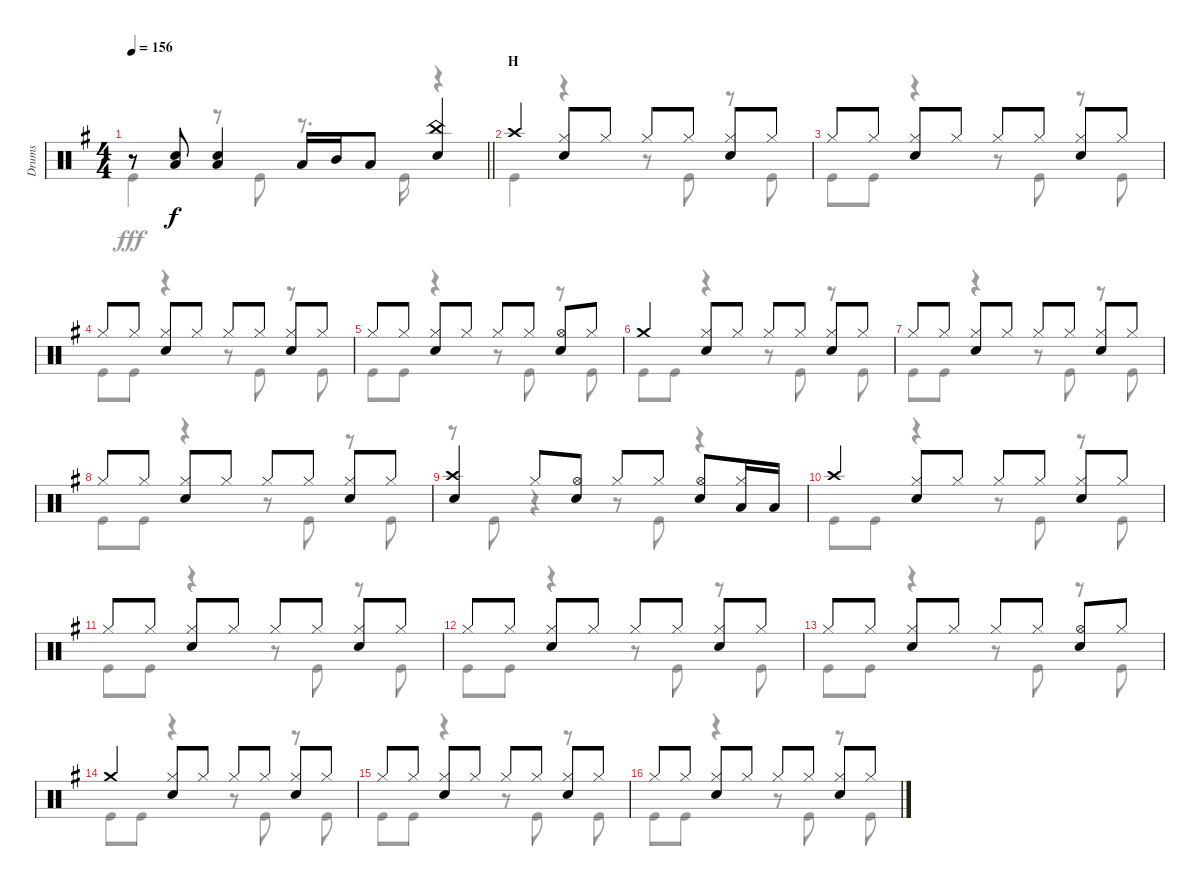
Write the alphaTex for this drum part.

\track ("Drums" "Drums") {instrument percussion}
\staff {score}
\articulation defaults
\voice
\ts (4 4)
\tempo 156
\clef neutral
\barLineRight lightlight
\ks g
r.8{dy f} ("Snare (hit) 2" "Low Tom (hit)").8 ("Snare (hit) 2" "Low Tom (hit)").4 "Low Tom (hit)".16 "Mid Tom (hit)".16 "Low Tom (hit)".8 ("China (hit)" "Snare (hit) 2").4 |
\section ("" "H")
"Crash high (hit)".4 ("Hi-Hat (closed)" "Snare (hit) 2").8 "Hi-Hat (closed)".8 "Hi-Hat (closed)".8 "Hi-Hat (closed)".8 ("Hi-Hat (closed)" "Snare (hit) 2").8 "Hi-Hat (closed)".8 |
"Hi-Hat (closed)".8 "Hi-Hat (closed)".8 ("Hi-Hat (closed)" "Snare (hit) 2").8 "Hi-Hat (closed)".8 "Hi-Hat (closed)".8 "Hi-Hat (closed)".8 ("Hi-Hat (closed)" "Snare (hit) 2").8 "Hi-Hat (closed)".8 |
"Hi-Hat (closed)".8 "Hi-Hat (closed)".8 ("Hi-Hat (closed)" "Snare (hit) 2").8 "Hi-Hat (closed)".8 "Hi-Hat (closed)".8 "Hi-Hat (closed)".8 ("Hi-Hat (closed)" "Snare (hit) 2").8 "Hi-Hat (closed)".8 |
"Hi-Hat (closed)".8 "Hi-Hat (closed)".8 ("Hi-Hat (closed)" "Snare (hit) 2").8 "Hi-Hat (closed)".8 "Hi-Hat (closed)".8 "Hi-Hat (closed)".8 ("Hi-Hat (open)" "Snare (hit) 2").8 "Hi-Hat (closed)".8 |
"Crash medium (hit)".4 ("Hi-Hat (closed)" "Snare (hit) 2").8 "Hi-Hat (closed)".8 "Hi-Hat (closed)".8 "Hi-Hat (closed)".8 ("Hi-Hat (closed)" "Snare (hit) 2").8 "Hi-Hat (closed)".8 |
"Hi-Hat (closed)".8 "Hi-Hat (closed)".8 ("Hi-Hat (closed)" "Snare (hit) 2").8 "Hi-Hat (closed)".8 "Hi-Hat (closed)".8 "Hi-Hat (closed)".8 ("Hi-Hat (closed)" "Snare (hit) 2").8 "Hi-Hat (closed)".8 |
"Hi-Hat (closed)".8 "Hi-Hat (closed)".8 ("Hi-Hat (closed)" "Snare (hit) 2").8 "Hi-Hat (closed)".8 "Hi-Hat (closed)".8 "Hi-Hat (closed)".8 ("Hi-Hat (closed)" "Snare (hit) 2").8 "Hi-Hat (closed)".8 |
("Crash high (hit)" "Snare (hit) 2").4 "Hi-Hat (closed)".8 ("Hi-Hat (open)" "Snare (hit) 2").8 "Hi-Hat (closed)".8 "Hi-Hat (closed)".8 ("Hi-Hat (open)" "Snare (hit) 2").8 ("Hi-Hat (closed)" "Low Tom (hit)").16 "Low Tom (hit)".16 |
"Crash high (hit)".4 ("Hi-Hat (closed)" "Snare (hit) 2").8 "Hi-Hat (closed)".8 "Hi-Hat (closed)".8 "Hi-Hat (closed)".8 ("Hi-Hat (closed)" "Snare (hit) 2").8 "Hi-Hat (closed)".8 |
"Hi-Hat (closed)".8 "Hi-Hat (closed)".8 ("Hi-Hat (closed)" "Snare (hit) 2").8 "Hi-Hat (closed)".8 "Hi-Hat (closed)".8 "Hi-Hat (closed)".8 ("Hi-Hat (closed)" "Snare (hit) 2").8 "Hi-Hat (closed)".8 |
"Hi-Hat (closed)".8 "Hi-Hat (closed)".8 ("Hi-Hat (closed)" "Snare (hit) 2").8 "Hi-Hat (closed)".8 "Hi-Hat (closed)".8 "Hi-Hat (closed)".8 ("Hi-Hat (closed)" "Snare (hit) 2").8 "Hi-Hat (closed)".8 |
"Hi-Hat (closed)".8 "Hi-Hat (closed)".8 ("Hi-Hat (closed)" "Snare (hit) 2").8 "Hi-Hat (closed)".8 "Hi-Hat (closed)".8 "Hi-Hat (closed)".8 ("Hi-Hat (open)" "Snare (hit) 2").8 "Hi-Hat (closed)".8 |
"Crash medium (hit)".4 ("Hi-Hat (closed)" "Snare (hit) 2").8 "Hi-Hat (closed)".8 "Hi-Hat (closed)".8 "Hi-Hat (closed)".8 ("Hi-Hat (closed)" "Snare (hit) 2").8 "Hi-Hat (closed)".8 |
"Hi-Hat (closed)".8 "Hi-Hat (closed)".8 ("Hi-Hat (closed)" "Snare (hit) 2").8 "Hi-Hat (closed)".8 "Hi-Hat (closed)".8 "Hi-Hat (closed)".8 ("Hi-Hat (closed)" "Snare (hit) 2").8 "Hi-Hat (closed)".8 |
"Hi-Hat (closed)".8 "Hi-Hat (closed)".8 ("Hi-Hat (closed)" "Snare (hit) 2").8 "Hi-Hat (closed)".8 "Hi-Hat (closed)".8 "Hi-Hat (closed)".8 ("Hi-Hat (closed)" "Snare (hit) 2").8 "Hi-Hat (closed)".8
\voice
\clef neutral
\ottava regular
\simile none
\barLineRight lightlight
\ks g "Kick (hit)".4{dy fff}
r.8 "Kick (hit)".8 r.8{d} "Kick (hit)".16 r.4 |
"Kick (hit)".4 r.4 r.8 "Kick (hit)".8 r.8 "Kick (hit)".8 |
"Kick (hit)".8 "Kick (hit)".8 r.4 r.8 "Kick (hit)".8 r.8 "Kick (hit)".8 |
"Kick (hit)".8 "Kick (hit)".8 r.4 r.8 "Kick (hit)".8 r.8 "Kick (hit)".8 |
"Kick (hit)".8 "Kick (hit)".8 r.4 r.8 "Kick (hit)".8 r.8 "Kick (hit)".8 |
"Kick (hit)".8 "Kick (hit)".8 r.4 r.8 "Kick (hit)".8 r.8 "Kick (hit)".8 |
"Kick (hit)".8 "Kick (hit)".8 r.4 r.8 "Kick (hit)".8 r.8 "Kick (hit)".8 |
"Kick (hit)".8 "Kick (hit)".8 r.4 r.8 "Kick (hit)".8 r.8 "Kick (hit)".8 |
r.8 "Kick (hit)".8 r.4 r.8 "Kick (hit)".8 r.4 |
"Kick (hit)".8 "Kick (hit)".8 r.4 r.8 "Kick (hit)".8 r.8 "Kick (hit)".8 |
"Kick (hit)".8 "Kick (hit)".8 r.4 r.8 "Kick (hit)".8 r.8 "Kick (hit)".8 |
"Kick (hit)".8 "Kick (hit)".8 r.4 r.8 "Kick (hit)".8 r.8 "Kick (hit)".8 |
"Kick (hit)".8 "Kick (hit)".8 r.4 r.8 "Kick (hit)".8 r.8 "Kick (hit)".8 |
"Kick (hit)".8 "Kick (hit)".8 r.4 r.8 "Kick (hit)".8 r.8 "Kick (hit)".8 |
"Kick (hit)".8 "Kick (hit)".8 r.4 r.8 "Kick (hit)".8 r.8 "Kick (hit)".8 |
"Kick (hit)".8 "Kick (hit)".8 r.4 r.8 "Kick (hit)".8 r.8 "Kick (hit)".8
